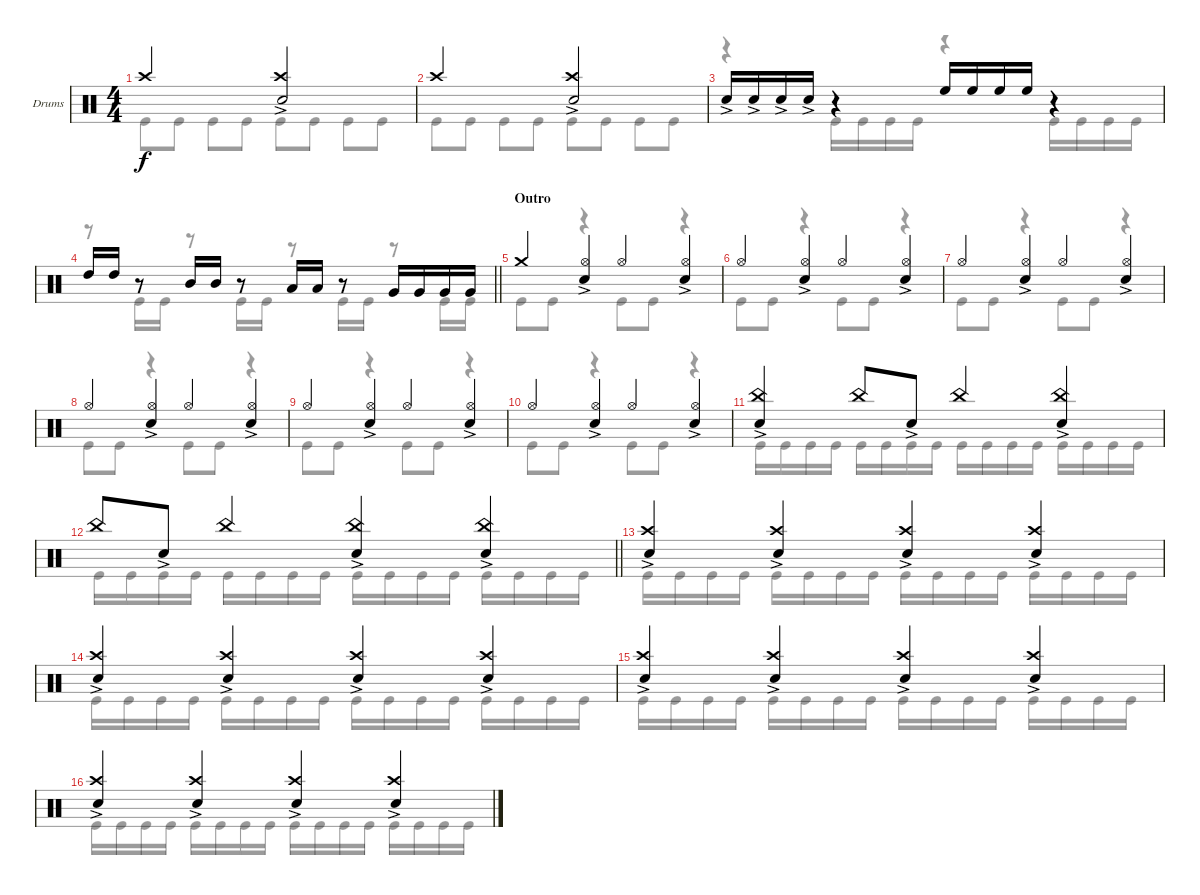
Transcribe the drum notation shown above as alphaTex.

\bracketExtendMode groupsimilarinstruments
\firstSystemTrackNameOrientation horizontal
\otherSystemsTrackNameOrientation horizontal
\track ("Drumkit" "Drums") {instrument percussion}
\staff {score}
\articulation defaults
\voice
\ts (4 4)
\tempo (184 hide)
\clef neutral
\ks c "Crash high (hit)".2{dy f}
("Crash high (hit)" "Snare (hit) 2"{ac}).2 |
"Crash high (hit)".2 ("Crash high (hit)" "Snare (hit) 2"{ac}).2 |
"Snare (hit) 2"{ac}.16 "Snare (hit) 2"{ac}.16 "Snare (hit) 2"{ac}.16 "Snare (hit) 2"{ac}.16 r.4 "High Floor Tom (hit)".16 "High Floor Tom (hit)".16 "High Floor Tom (hit)".16 "High Floor Tom (hit)".16 r.4 |
\barLineRight lightlight "High Tom (hit)".16 "High Tom (hit)".16
r.8 "Mid Tom (hit)".16 "Mid Tom (hit)".16 r.8 "Low Tom (hit)".16 "Low Tom (hit)".16 r.8 "Very Low Tom (hit)".16 "Very Low Tom (hit)".16 "Very Low Tom (hit)".16 "Very Low Tom (hit)".16 |
\section ("" "Outro")
"Crash medium (hit)".4 ("Hi-Hat (open)" "Snare (hit) 2"{ac}).4 "Hi-Hat (open)".4 ("Hi-Hat (open)" "Snare (hit) 2"{ac}).4 |
"Hi-Hat (open)".4 ("Hi-Hat (open)" "Snare (hit) 2"{ac}).4 "Hi-Hat (open)".4 ("Hi-Hat (open)" "Snare (hit) 2"{ac}).4 |
"Hi-Hat (open)".4 ("Hi-Hat (open)" "Snare (hit) 2"{ac}).4 "Hi-Hat (open)".4 ("Hi-Hat (open)" "Snare (hit) 2"{ac}).4 |
"Hi-Hat (open)".4 ("Hi-Hat (open)" "Snare (hit) 2"{ac}).4 "Hi-Hat (open)".4 ("Hi-Hat (open)" "Snare (hit) 2"{ac}).4 |
"Hi-Hat (open)".4 ("Hi-Hat (open)" "Snare (hit) 2"{ac}).4 "Hi-Hat (open)".4 ("Hi-Hat (open)" "Snare (hit) 2"{ac}).4 |
"Hi-Hat (open)".4 ("Hi-Hat (open)" "Snare (hit) 2"{ac}).4 "Hi-Hat (open)".4 ("Hi-Hat (open)" "Snare (hit) 2"{ac}).4 |
("China (hit)" "Snare (hit) 2"{ac}).4 "China (hit)".8 "Snare (hit) 2"{ac}.8 "China (hit)".4 ("China (hit)" "Snare (hit) 2"{ac}).4 |
\barLineRight lightlight "China (hit)".8 "Snare (hit) 2"{ac}.8 "China (hit)".4
("China (hit)" "Snare (hit) 2"{ac}).4 ("China (hit)" "Snare (hit) 2"{ac}).4 |
("Crash high (hit)" "Snare (hit) 2"{ac}).4 ("Crash high (hit)" "Snare (hit) 2"{ac}).4 ("Crash high (hit)" "Snare (hit) 2"{ac}).4 ("Crash high (hit)" "Snare (hit) 2"{ac}).4 |
("Crash high (hit)" "Snare (hit) 2"{ac}).4 ("Crash high (hit)" "Snare (hit) 2"{ac}).4 ("Crash high (hit)" "Snare (hit) 2"{ac}).4 ("Crash high (hit)" "Snare (hit) 2"{ac}).4 |
("Crash high (hit)" "Snare (hit) 2"{ac}).4 ("Crash high (hit)" "Snare (hit) 2"{ac}).4 ("Crash high (hit)" "Snare (hit) 2"{ac}).4 ("Crash high (hit)" "Snare (hit) 2"{ac}).4 |
("Crash high (hit)" "Snare (hit) 2"{ac}).4 ("Crash high (hit)" "Snare (hit) 2"{ac}).4 ("Crash high (hit)" "Snare (hit) 2"{ac}).4 ("Crash high (hit)" "Snare (hit) 2"{ac}).4
\voice
\clef neutral
\ottava regular
\simile none
\ks c "Kick (hit)".8{dy f} "Kick (hit)".8 "Kick (hit)".8 "Kick (hit)".8 "Kick (hit)".8 "Kick (hit)".8 "Kick (hit)".8 "Kick (hit)".8
|
"Kick (hit)".8 "Kick (hit)".8 "Kick (hit)".8 "Kick (hit)".8 "Kick (hit)".8 "Kick (hit)".8 "Kick (hit)".8 "Kick (hit)".8 |
r.4 "Kick (hit)".16 "Kick (hit)".16 "Kick (hit)".16 "Kick (hit)".16 r.4 "Kick (hit)".16 "Kick (hit)".16 "Kick (hit)".16 "Kick (hit)".16 |
\barLineRight lightlight
r.8 "Kick (hit)".16 "Kick (hit)".16 r.8 "Kick (hit)".16 "Kick (hit)".16 r.8 "Kick (hit)".16 "Kick (hit)".16 r.8 "Kick (hit)".16 "Kick (hit)".16 |
"Kick (hit)".8 "Kick (hit)".8 r.4 "Kick (hit)".8 "Kick (hit)".8 r.4 |
"Kick (hit)".8 "Kick (hit)".8 r.4 "Kick (hit)".8 "Kick (hit)".8 r.4 |
"Kick (hit)".8 "Kick (hit)".8 r.4 "Kick (hit)".8 "Kick (hit)".8 r.4 |
"Kick (hit)".8 "Kick (hit)".8 r.4 "Kick (hit)".8 "Kick (hit)".8 r.4 |
"Kick (hit)".8 "Kick (hit)".8 r.4 "Kick (hit)".8 "Kick (hit)".8 r.4 |
"Kick (hit)".8 "Kick (hit)".8 r.4 "Kick (hit)".8 "Kick (hit)".8 r.4 |
"Kick (hit)".16 "Kick (hit)".16 "Kick (hit)".16 "Kick (hit)".16 "Kick (hit)".16 "Kick (hit)".16 "Kick (hit)".16 "Kick (hit)".16 "Kick (hit)".16 "Kick (hit)".16 "Kick (hit)".16 "Kick (hit)".16 "Kick (hit)".16 "Kick (hit)".16 "Kick (hit)".16 "Kick (hit)".16 |
\barLineRight lightlight "Kick (hit)".16 "Kick (hit)".16 "Kick (hit)".16 "Kick (hit)".16 "Kick (hit)".16 "Kick (hit)".16 "Kick (hit)".16 "Kick (hit)".16 "Kick (hit)".16 "Kick (hit)".16 "Kick (hit)".16 "Kick (hit)".16 "Kick (hit)".16 "Kick (hit)".16 "Kick (hit)".16 "Kick (hit)".16
|
"Kick (hit)".16 "Kick (hit)".16 "Kick (hit)".16 "Kick (hit)".16 "Kick (hit)".16 "Kick (hit)".16 "Kick (hit)".16 "Kick (hit)".16 "Kick (hit)".16 "Kick (hit)".16 "Kick (hit)".16 "Kick (hit)".16 "Kick (hit)".16 "Kick (hit)".16 "Kick (hit)".16 "Kick (hit)".16 |
"Kick (hit)".16 "Kick (hit)".16 "Kick (hit)".16 "Kick (hit)".16 "Kick (hit)".16 "Kick (hit)".16 "Kick (hit)".16 "Kick (hit)".16 "Kick (hit)".16 "Kick (hit)".16 "Kick (hit)".16 "Kick (hit)".16 "Kick (hit)".16 "Kick (hit)".16 "Kick (hit)".16 "Kick (hit)".16 |
"Kick (hit)".16 "Kick (hit)".16 "Kick (hit)".16 "Kick (hit)".16 "Kick (hit)".16 "Kick (hit)".16 "Kick (hit)".16 "Kick (hit)".16 "Kick (hit)".16 "Kick (hit)".16 "Kick (hit)".16 "Kick (hit)".16 "Kick (hit)".16 "Kick (hit)".16 "Kick (hit)".16 "Kick (hit)".16 |
"Kick (hit)".16 "Kick (hit)".16 "Kick (hit)".16 "Kick (hit)".16 "Kick (hit)".16 "Kick (hit)".16 "Kick (hit)".16 "Kick (hit)".16 "Kick (hit)".16 "Kick (hit)".16 "Kick (hit)".16 "Kick (hit)".16 "Kick (hit)".16 "Kick (hit)".16 "Kick (hit)".16 "Kick (hit)".16
